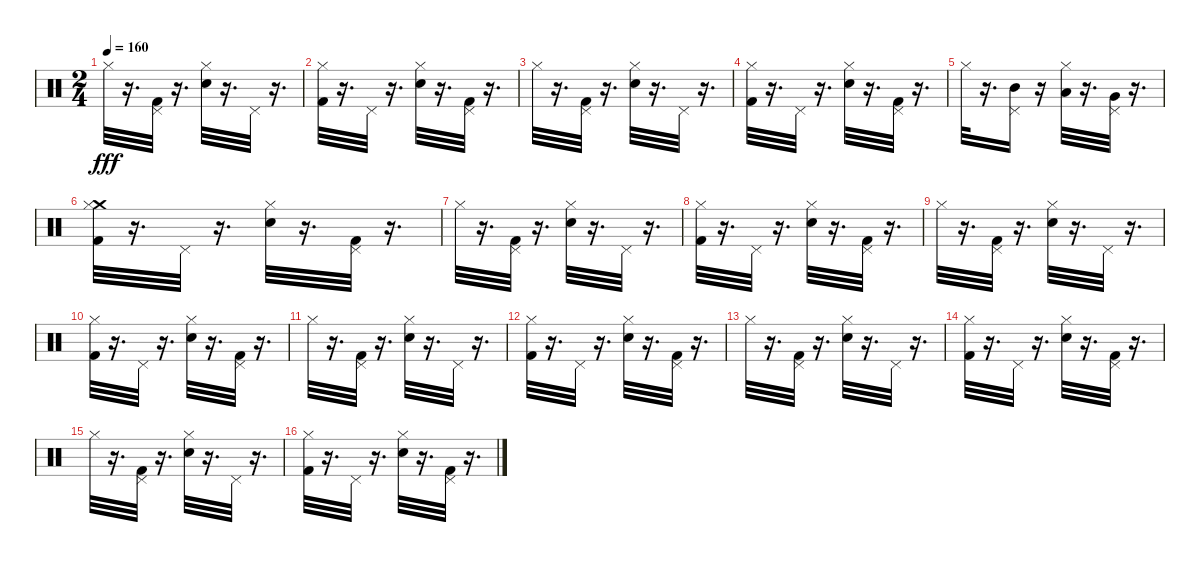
\track "" {instrument percussion}
\staff {score}
\articulation defaults
\ts (2 4)
\tempo 160
\clef neutral
\ks c "Hi-Hat (closed)".32{dy fff}
r.16{d} ("Pedal Hi-Hat (hit)" "Kick (hit) 2").32 r.16{d} ("Hi-Hat (closed)" "Snare (hit) 2").32 r.16{d} "Pedal Hi-Hat (hit)".32 r.16{d} |
("Hi-Hat (closed)" "Kick (hit) 2").32 r.16{d} "Pedal Hi-Hat (hit)".32 r.16{d} ("Hi-Hat (closed)" "Snare (hit) 2").32 r.16{d} ("Pedal Hi-Hat (hit)" "Kick (hit) 2").32 r.16{d} |
"Hi-Hat (closed)".32 r.16{d} ("Pedal Hi-Hat (hit)" "Kick (hit) 2").32 r.16{d} ("Hi-Hat (closed)" "Snare (hit) 2").32 r.16{d} "Pedal Hi-Hat (hit)".32 r.16{d} |
("Hi-Hat (closed)" "Kick (hit) 2").32 r.16{d} "Pedal Hi-Hat (hit)".32 r.16{d} ("Hi-Hat (closed)" "Snare (hit) 2").32 r.16{d} ("Pedal Hi-Hat (hit)" "Kick (hit) 2").32 r.16{d} |
"Hi-Hat (closed)".32 r.16{d} ("Pedal Hi-Hat (hit)" "Mid Tom (hit)").16 r.16 ("Hi-Hat (closed)" "Low Tom (hit)").32 r.16{d} ("Pedal Hi-Hat (hit)" "Very Low Tom (hit)").32 r.16{d} |
("Crash medium (hit)" "Hi-Hat (closed)" "Kick (hit) 2").32 r.16{d} "Pedal Hi-Hat (hit)".32 r.16{d} ("Hi-Hat (closed)" "Snare (hit) 2").32 r.16{d} ("Pedal Hi-Hat (hit)" "Kick (hit) 2").32 r.16{d} |
"Hi-Hat (closed)".32 r.16{d} ("Pedal Hi-Hat (hit)" "Kick (hit) 2").32 r.16{d} ("Hi-Hat (closed)" "Snare (hit) 2").32 r.16{d} "Pedal Hi-Hat (hit)".32 r.16{d} |
("Hi-Hat (closed)" "Kick (hit) 2").32 r.16{d} "Pedal Hi-Hat (hit)".32 r.16{d} ("Hi-Hat (closed)" "Snare (hit) 2").32 r.16{d} ("Pedal Hi-Hat (hit)" "Kick (hit) 2").32 r.16{d} |
"Hi-Hat (closed)".32 r.16{d} ("Pedal Hi-Hat (hit)" "Kick (hit) 2").32 r.16{d} ("Hi-Hat (closed)" "Snare (hit) 2").32 r.16{d} "Pedal Hi-Hat (hit)".32 r.16{d} |
("Hi-Hat (closed)" "Kick (hit) 2").32 r.16{d} "Pedal Hi-Hat (hit)".32 r.16{d} ("Hi-Hat (closed)" "Snare (hit) 2").32 r.16{d} ("Pedal Hi-Hat (hit)" "Kick (hit) 2").32 r.16{d} |
"Hi-Hat (closed)".32 r.16{d} ("Pedal Hi-Hat (hit)" "Kick (hit) 2").32 r.16{d} ("Hi-Hat (closed)" "Snare (hit) 2").32 r.16{d} "Pedal Hi-Hat (hit)".32 r.16{d} |
("Hi-Hat (closed)" "Kick (hit) 2").32 r.16{d} "Pedal Hi-Hat (hit)".32 r.16{d} ("Hi-Hat (closed)" "Snare (hit) 2").32 r.16{d} ("Pedal Hi-Hat (hit)" "Kick (hit) 2").32 r.16{d} |
"Hi-Hat (closed)".32 r.16{d} ("Pedal Hi-Hat (hit)" "Kick (hit) 2").32 r.16{d} ("Hi-Hat (closed)" "Snare (hit) 2").32 r.16{d} "Pedal Hi-Hat (hit)".32 r.16{d} |
("Hi-Hat (closed)" "Kick (hit) 2").32 r.16{d} "Pedal Hi-Hat (hit)".32 r.16{d} ("Hi-Hat (closed)" "Snare (hit) 2").32 r.16{d} ("Pedal Hi-Hat (hit)" "Kick (hit) 2").32 r.16{d} |
"Hi-Hat (closed)".32 r.16{d} ("Pedal Hi-Hat (hit)" "Kick (hit) 2").32 r.16{d} ("Hi-Hat (closed)" "Snare (hit) 2").32 r.16{d} "Pedal Hi-Hat (hit)".32 r.16{d} |
("Hi-Hat (closed)" "Kick (hit) 2").32 r.16{d} "Pedal Hi-Hat (hit)".32 r.16{d} ("Hi-Hat (closed)" "Snare (hit) 2").32 r.16{d} ("Pedal Hi-Hat (hit)" "Kick (hit) 2").32 r.16{d}
